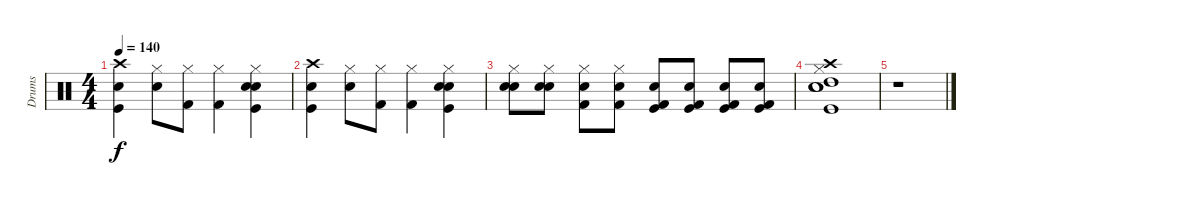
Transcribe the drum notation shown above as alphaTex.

\track ("Drums" "Drums") {instrument percussion}
\staff {score}
\articulation defaults
\ts (4 4)
\tempo 140
\clef neutral
\ks c
("Crash high (hit)" "Snare (hit) 2" "Kick (hit)").4{dy f} ("Hi-Hat (closed)" "Snare (hit) 2").8 ("Hi-Hat (closed)" "Kick (hit) 2").8 ("Hi-Hat (closed)" "Kick (hit) 2").4 ("Electric Snare (hit)" "Hi-Hat (closed)" "Snare (hit) 2" "Kick (hit)").4 |
("Crash high (hit)" "Snare (hit) 2" "Kick (hit)").4 ("Hi-Hat (closed)" "Snare (hit) 2").8 ("Hi-Hat (closed)" "Kick (hit) 2").8 ("Hi-Hat (closed)" "Kick (hit) 2").4 ("Electric Snare (hit)" "Hi-Hat (closed)" "Snare (hit) 2" "Kick (hit)").4 |
("Electric Snare (hit)" "Hi-Hat (closed)" "Snare (hit) 2").8 ("Electric Snare (hit)" "Hi-Hat (closed)" "Snare (hit) 2").8 ("Electric Snare (hit)" "Hi-Hat (closed)" "Kick (hit) 2").8 ("Electric Snare (hit)" "Hi-Hat (closed)" "Kick (hit) 2").8 ("Electric Snare (hit)" "Kick (hit) 2" "Kick (hit)").8 ("Electric Snare (hit)" "Kick (hit) 2" "Kick (hit)").8 ("Electric Snare (hit)" "Kick (hit) 2" "Kick (hit)").8 ("Electric Snare (hit)" "Kick (hit) 2" "Kick (hit)").8 |
("Electric Snare (hit)" "Hi-Hat (closed)" "Snare (hit) 2" "Kick (hit)" "High Tom (hit)" "Crash high (hit)").1 |
r.1
